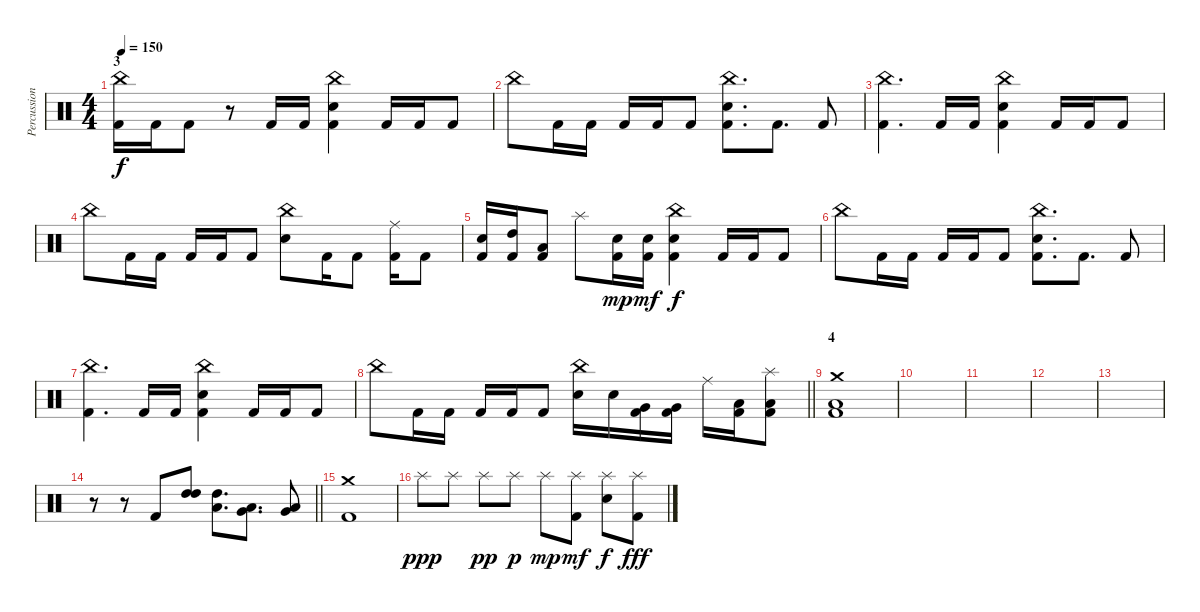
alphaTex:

\track ("Percussioni" "Percussion") {instrument percussion}
\staff {score}
\articulation defaults
\ts (4 4)
\section ("" "3")
\tempo 150
\clef neutral
\ks c
("China (hit)" "Kick (hit) 2").16{dy f} "Kick (hit) 2".16 "Kick (hit) 2".8 r.8 "Kick (hit) 2".16 "Kick (hit) 2".16 ("China (hit)" "Electric Snare (hit)" "Kick (hit) 2").4 "Kick (hit) 2".16 "Kick (hit) 2".16 "Kick (hit) 2".8 |
"China (hit)".8 "Kick (hit) 2".16 "Kick (hit) 2".16 "Kick (hit) 2".16 "Kick (hit) 2".16 "Kick (hit) 2".8 ("China (hit)" "Electric Snare (hit)" "Kick (hit) 2").8{d} "Kick (hit) 2".8{d} "Kick (hit) 2".8 |
("China (hit)" "Kick (hit) 2").4{d} "Kick (hit) 2".16 "Kick (hit) 2".16 ("China (hit)" "Electric Snare (hit)" "Kick (hit) 2").4 "Kick (hit) 2".16 "Kick (hit) 2".16 "Kick (hit) 2".8 |
"China (hit)".8 "Kick (hit) 2".16 "Kick (hit) 2".16 "Kick (hit) 2".16 "Kick (hit) 2".16 "Kick (hit) 2".8 ("China (hit)" "Electric Snare (hit)").8 "Kick (hit) 2".16 "Kick (hit) 2".8 ("Ride (middle)" "Kick (hit) 2").16 "Kick (hit) 2".8 |
("Electric Snare (hit)" "Kick (hit) 2").16 ("High Tom (hit)" "Kick (hit) 2").16 ("Low Tom (hit)" "Kick (hit) 2").8 "Splash (hit)".8 ("Electric Snare (hit)" "Kick (hit) 2").16{dy mp} ("Electric Snare (hit)" "Kick (hit) 2").16{dy mf} ("China (hit)" "Electric Snare (hit)" "Kick (hit) 2").4{dy f} "Kick (hit) 2".16 "Kick (hit) 2".16 "Kick (hit) 2".8 |
"China (hit)".8 "Kick (hit) 2".16 "Kick (hit) 2".16 "Kick (hit) 2".16 "Kick (hit) 2".16 "Kick (hit) 2".8 ("China (hit)" "Electric Snare (hit)" "Kick (hit) 2").8{d} "Kick (hit) 2".8{d} "Kick (hit) 2".8 |
("China (hit)" "Kick (hit) 2").4{d} "Kick (hit) 2".16 "Kick (hit) 2".16 ("China (hit)" "Electric Snare (hit)" "Kick (hit) 2").4 "Kick (hit) 2".16 "Kick (hit) 2".16 "Kick (hit) 2".8 |
\barLineRight lightlight "China (hit)".8 "Kick (hit) 2".16 "Kick (hit) 2".16 "Kick (hit) 2".16 "Kick (hit) 2".16 "Kick (hit) 2".8
("China (hit)" "Electric Snare (hit)").16 "Electric Snare (hit)".16 ("Very Low Tom (hit)" "Kick (hit) 2").16 ("Very Low Tom (hit)" "Kick (hit) 2").16 "Ride (middle)".16 ("Low Tom (hit)" "Kick (hit) 2").16 ("Splash (hit)" "Low Tom (hit)" "Kick (hit) 2").8 |
\section ("" "4")
("Crash medium (hit)" "Low Floor Tom (hit)" "Kick (hit) 2").1 |
|
|
|
|
\barLineRight lightlight
r.8 r.8 "Kick (hit) 2".8 ("High Tom (hit)" "High Tom (hit)").8 ("High Tom (hit)" "Low Tom (hit)").8{d} ("Low Tom (hit)" "Very Low Tom (hit)").8{d} ("Low Tom (hit)" "Very Low Tom (hit)").8 |
("Crash medium (hit)" "Kick (hit) 2").1 |
"Splash (hit)".8{dy ppp} "Splash (hit)".8 "Splash (hit)".8{dy pp} "Splash (hit)".8{dy p} "Splash (hit)".8{dy mp} ("Splash (hit)" "Kick (hit) 2").8{dy mf} ("Splash (hit)" "Electric Snare (hit)").8{dy f} ("Splash (hit)" "Kick (hit) 2").8{dy fff}
